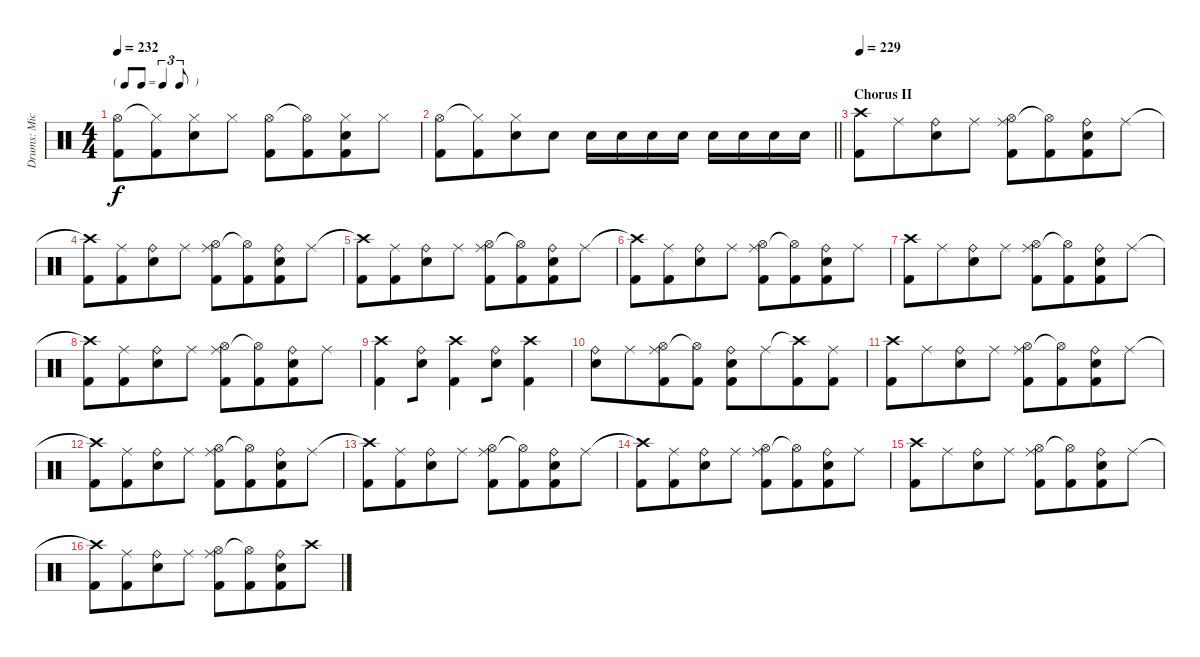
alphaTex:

\track ("Drums: Mick" "Drums: Mic") {instrument percussion}
\staff {score}
\articulation defaults
\ts (4 4)
\tf triplet8th
\tempo 232
\clef neutral
\ks c
("Hi-Hat (open)" "Kick (hit) 2").8{dy f} ("Hi-Hat (closed)"{t} "Kick (hit) 2").8{beam merge} ("Hi-Hat (closed)" "Snare (hit) 2").8 "Hi-Hat (closed)".8 ("Hi-Hat (open)" "Kick (hit) 2").8 ("Hi-Hat (open)"{t} "Kick (hit) 2").8{beam merge} ("Hi-Hat (closed)" "Snare (hit) 2" "Kick (hit) 2").8 "Hi-Hat (closed)".8 |
\barLineRight lightlight
("Hi-Hat (open)" "Kick (hit) 2").8 ("Hi-Hat (closed)"{t} "Kick (hit) 2").8{beam merge} ("Hi-Hat (closed)" "Snare (hit) 2").8 "Snare (hit) 2".8 "Snare (hit) 2".16 "Snare (hit) 2".16 "Snare (hit) 2".16 "Snare (hit) 2".16 "Snare (hit) 2".16 "Snare (hit) 2".16 "Snare (hit) 2".16 "Snare (hit) 2".16 |
\section ("" "Chorus II")
\tempo 229
("Crash high (hit)" "Kick (hit) 2").8 "Ride (middle)".8{beam merge} ("Ride (bell)" "Snare (hit) 2").8 "Ride (middle)".8 ("Ride (middle)" "Hi-Hat (open)" "Kick (hit) 2").8 ("Hi-Hat (open)"{t} "Kick (hit) 2").8{beam merge} ("Ride (bell)" "Snare (hit) 2" "Kick (hit) 2").8 "Ride (middle)".8 |
("Crash high (hit)"{t} "Kick (hit) 2").8 ("Ride (middle)" "Kick (hit) 2").8{beam merge} ("Ride (bell)" "Snare (hit) 2").8 "Ride (middle)".8 ("Ride (middle)" "Hi-Hat (open)" "Kick (hit) 2").8 ("Hi-Hat (open)"{t} "Kick (hit) 2").8{beam merge} ("Ride (bell)" "Snare (hit) 2" "Kick (hit) 2").8 "Ride (middle)".8 |
("Crash high (hit)"{t} "Kick (hit) 2").8 ("Ride (middle)" "Kick (hit) 2").8{beam merge} ("Ride (bell)" "Snare (hit) 2").8 "Ride (middle)".8 ("Ride (middle)" "Hi-Hat (open)" "Kick (hit) 2").8 ("Hi-Hat (open)"{t} "Kick (hit) 2").8{beam merge} ("Ride (bell)" "Snare (hit) 2" "Kick (hit) 2").8 "Ride (middle)".8 |
("Crash high (hit)"{t} "Kick (hit) 2").8 ("Ride (middle)" "Kick (hit) 2").8{beam merge} ("Ride (bell)" "Snare (hit) 2").8 "Ride (middle)".8 ("Ride (middle)" "Hi-Hat (open)" "Kick (hit) 2").8 ("Hi-Hat (open)"{t} "Kick (hit) 2").8{beam merge} ("Ride (bell)" "Snare (hit) 2" "Kick (hit) 2").8 "Ride (middle)".8 |
("Crash high (hit)" "Kick (hit) 2").8 "Ride (middle)".8{beam merge} ("Ride (bell)" "Snare (hit) 2").8 "Ride (middle)".8 ("Ride (middle)" "Hi-Hat (open)" "Kick (hit) 2").8 ("Hi-Hat (open)"{t} "Kick (hit) 2").8{beam merge} ("Ride (bell)" "Snare (hit) 2" "Kick (hit) 2").8 "Ride (middle)".8 |
("Crash high (hit)"{t} "Kick (hit) 2").8 ("Ride (middle)" "Kick (hit) 2").8{beam merge} ("Ride (bell)" "Snare (hit) 2").8 "Ride (middle)".8 ("Ride (middle)" "Hi-Hat (open)" "Kick (hit) 2").8 ("Hi-Hat (open)"{t} "Kick (hit) 2").8{beam merge} ("Ride (bell)" "Snare (hit) 2" "Kick (hit) 2").8 "Ride (middle)".8 |
("Crash high (hit)" "Kick (hit) 2").4{beam merge} ("Ride (bell)" "Snare (hit) 2").8 ("Crash high (hit)" "Kick (hit) 2").4{beam merge} ("Ride (bell)" "Snare (hit) 2").8 ("Crash high (hit)" "Kick (hit) 2").4 |
("Ride (bell)" "Snare (hit) 2").8 "Ride (middle)".8{beam merge} ("Ride (middle)" "Hi-Hat (open)" "Kick (hit) 2").8 ("Hi-Hat (open)"{t} "Kick (hit) 2").8{beam split} ("Ride (bell)" "Snare (hit) 2" "Kick (hit) 2").8 "Ride (middle)".8{beam merge} ("Crash high (hit)"{t} "Kick (hit) 2").8 ("Ride (middle)" "Kick (hit) 2").8 |
("Crash high (hit)" "Kick (hit) 2").8 "Ride (middle)".8{beam merge} ("Ride (bell)" "Snare (hit) 2").8 "Ride (middle)".8 ("Ride (middle)" "Hi-Hat (open)" "Kick (hit) 2").8 ("Hi-Hat (open)"{t} "Kick (hit) 2").8{beam merge} ("Ride (bell)" "Snare (hit) 2" "Kick (hit) 2").8 "Ride (middle)".8 |
("Crash high (hit)"{t} "Kick (hit) 2").8 ("Ride (middle)" "Kick (hit) 2").8{beam merge} ("Ride (bell)" "Snare (hit) 2").8 "Ride (middle)".8 ("Ride (middle)" "Hi-Hat (open)" "Kick (hit) 2").8 ("Hi-Hat (open)"{t} "Kick (hit) 2").8{beam merge} ("Ride (bell)" "Snare (hit) 2" "Kick (hit) 2").8 "Ride (middle)".8 |
("Crash high (hit)"{t} "Kick (hit) 2").8 ("Ride (middle)" "Kick (hit) 2").8{beam merge} ("Ride (bell)" "Snare (hit) 2").8 "Ride (middle)".8 ("Ride (middle)" "Hi-Hat (open)" "Kick (hit) 2").8 ("Hi-Hat (open)"{t} "Kick (hit) 2").8{beam merge} ("Ride (bell)" "Snare (hit) 2" "Kick (hit) 2").8 "Ride (middle)".8 |
("Crash high (hit)"{t} "Kick (hit) 2").8 ("Ride (middle)" "Kick (hit) 2").8{beam merge} ("Ride (bell)" "Snare (hit) 2").8 "Ride (middle)".8 ("Ride (middle)" "Hi-Hat (open)" "Kick (hit) 2").8 ("Hi-Hat (open)"{t} "Kick (hit) 2").8{beam merge} ("Ride (bell)" "Snare (hit) 2" "Kick (hit) 2").8 "Ride (middle)".8 |
("Crash high (hit)" "Kick (hit) 2").8 "Ride (middle)".8{beam merge} ("Ride (bell)" "Snare (hit) 2").8 "Ride (middle)".8 ("Ride (middle)" "Hi-Hat (open)" "Kick (hit) 2").8 ("Hi-Hat (open)"{t} "Kick (hit) 2").8{beam merge} ("Ride (bell)" "Snare (hit) 2" "Kick (hit) 2").8 "Ride (middle)".8 |
("Crash high (hit)"{t} "Kick (hit) 2").8 ("Ride (middle)" "Kick (hit) 2").8{beam merge} ("Ride (bell)" "Snare (hit) 2").8 "Ride (middle)".8 ("Ride (middle)" "Hi-Hat (open)" "Kick (hit) 2").8 ("Hi-Hat (open)"{t} "Kick (hit) 2").8{beam merge} ("Ride (bell)" "Snare (hit) 2" "Kick (hit) 2").8 "Crash high (hit)".8
